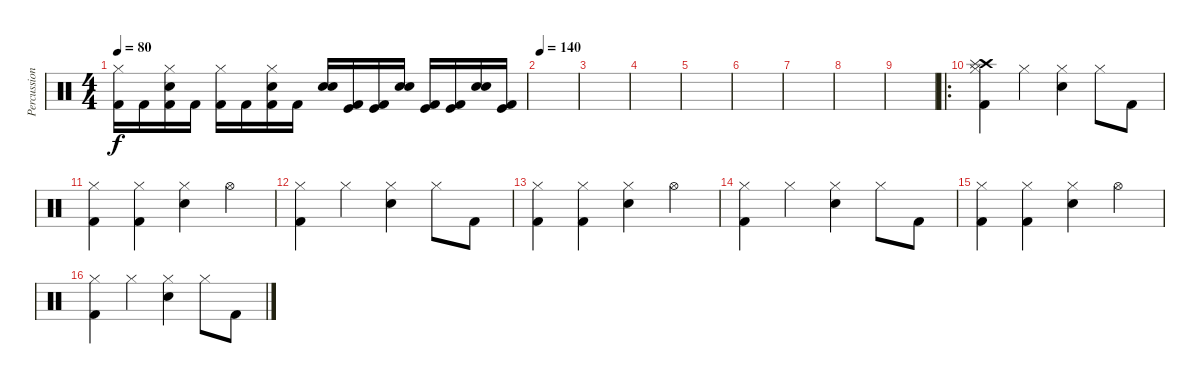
\track ("Percussion" "Percussion") {instrument percussion}
\staff {score}
\articulation defaults
\ts (4 4)
\tempo 80
\clef neutral
\ks c
("Hi-Hat (closed)" "Kick (hit) 2").16{dy f} "Kick (hit) 2".16 ("Hi-Hat (closed)" "Kick (hit) 2" "Electric Snare (hit)").16 "Kick (hit) 2".16 ("Hi-Hat (closed)" "Kick (hit) 2").16 "Kick (hit) 2".16 ("Hi-Hat (closed)" "Kick (hit) 2" "Electric Snare (hit)").16 "Kick (hit) 2".16 ("Snare (hit) 2" "Electric Snare (hit)").16 ("Kick (hit)" "Kick (hit) 2").16 ("Kick (hit)" "Kick (hit) 2").16 ("Snare (hit) 2" "Electric Snare (hit)").16 ("Kick (hit)" "Kick (hit) 2").16 ("Kick (hit)" "Kick (hit) 2").16 ("Snare (hit) 2" "Electric Snare (hit)").16 ("Kick (hit)" "Kick (hit) 2").16 |
\tempo 140
|
|
|
|
|
|
|
|
\ro
("Crash high (hit)" "Splash (hit)" "Hi-Hat (closed)" "Kick (hit) 2").4 "Hi-Hat (closed)".4 ("Hi-Hat (closed)" "Electric Snare (hit)").4 "Hi-Hat (closed)".8 "Kick (hit) 2".8 |
("Hi-Hat (closed)" "Kick (hit) 2").4 ("Hi-Hat (closed)" "Kick (hit) 2").4 ("Hi-Hat (closed)" "Electric Snare (hit)").4 "Hi-Hat (open)".4 |
("Hi-Hat (closed)" "Kick (hit) 2").4 "Hi-Hat (closed)".4 ("Hi-Hat (closed)" "Electric Snare (hit)").4 "Hi-Hat (closed)".8 "Kick (hit) 2".8 |
("Hi-Hat (closed)" "Kick (hit) 2").4 ("Hi-Hat (closed)" "Kick (hit) 2").4 ("Hi-Hat (closed)" "Electric Snare (hit)").4 "Hi-Hat (open)".4 |
("Hi-Hat (closed)" "Kick (hit) 2").4 "Hi-Hat (closed)".4 ("Hi-Hat (closed)" "Electric Snare (hit)").4 "Hi-Hat (closed)".8 "Kick (hit) 2".8 |
("Hi-Hat (closed)" "Kick (hit) 2").4 ("Hi-Hat (closed)" "Kick (hit) 2").4 ("Hi-Hat (closed)" "Electric Snare (hit)").4 "Hi-Hat (open)".4 |
("Hi-Hat (closed)" "Kick (hit) 2").4 "Hi-Hat (closed)".4 ("Hi-Hat (closed)" "Electric Snare (hit)").4 "Hi-Hat (closed)".8 "Kick (hit) 2".8
